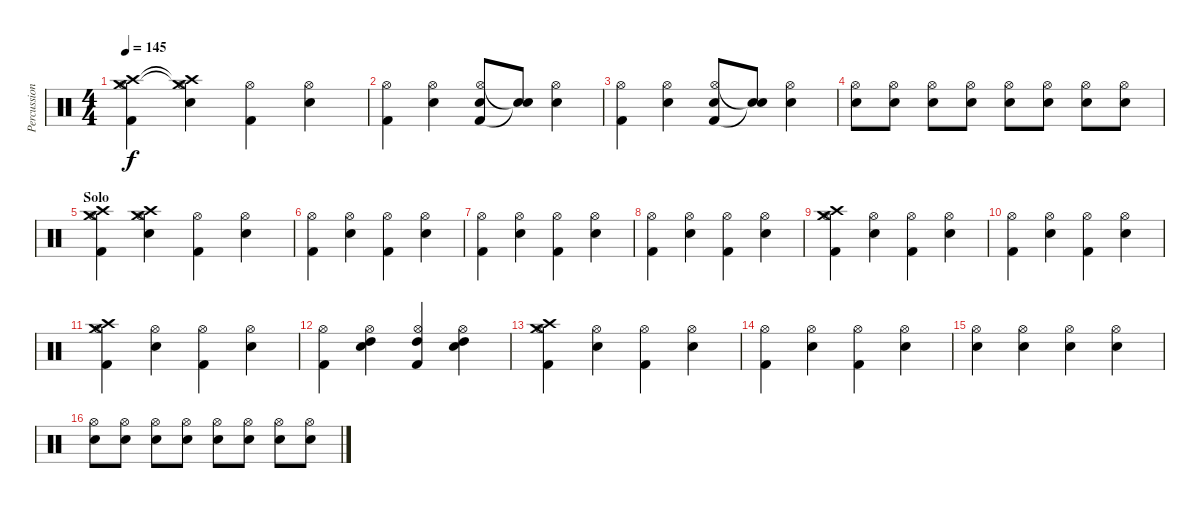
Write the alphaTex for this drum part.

\track ("Percussions" "Percussion") {instrument percussion}
\staff {score}
\articulation defaults
\ts (4 4)
\tempo 145
\clef neutral
\ks c
("Kick (hit) 2" "Hi-Hat (open)" "Crash medium (hit)" "Crash high (hit)").4{dy f} ("Snare (hit) 2" "Hi-Hat (open)" "Crash medium (hit)"{t} "Crash high (hit)"{t}).4 ("Kick (hit) 2" "Hi-Hat (open)").4 ("Snare (hit) 2" "Hi-Hat (open)").4 |
("Kick (hit) 2" "Hi-Hat (open)").4 ("Snare (hit) 2" "Hi-Hat (open)").4 ("Kick (hit) 2" "Hi-Hat (open)" "Snare (hit) 2").8 ("Snare (hit)"{t} "Snare (hit)"{t}).8 ("Snare (hit) 2" "Hi-Hat (open)").4 |
("Kick (hit) 2" "Hi-Hat (open)").4 ("Snare (hit) 2" "Hi-Hat (open)").4 ("Kick (hit) 2" "Hi-Hat (open)" "Snare (hit) 2").8 ("Snare (hit)"{t} "Snare (hit)"{t}).8 ("Snare (hit) 2" "Hi-Hat (open)").4 |
("Snare (hit) 2" "Hi-Hat (open)").8 ("Snare (hit) 2" "Hi-Hat (open)").8 ("Snare (hit) 2" "Hi-Hat (open)").8 ("Snare (hit) 2" "Hi-Hat (open)").8 ("Snare (hit) 2" "Hi-Hat (open)").8 ("Snare (hit) 2" "Hi-Hat (open)").8 ("Snare (hit) 2" "Hi-Hat (open)").8 ("Snare (hit) 2" "Hi-Hat (open)").8 |
\section ("" "Solo")
("Kick (hit) 2" "Hi-Hat (open)" "Crash medium (hit)" "Crash high (hit)").4 ("Snare (hit) 2" "Hi-Hat (open)" "Crash medium (hit)" "Crash high (hit)").4 ("Kick (hit) 2" "Hi-Hat (open)").4 ("Snare (hit) 2" "Hi-Hat (open)").4 |
("Kick (hit) 2" "Hi-Hat (open)").4 ("Snare (hit) 2" "Hi-Hat (open)").4 ("Kick (hit) 2" "Hi-Hat (open)").4 ("Snare (hit) 2" "Hi-Hat (open)").4 |
("Kick (hit) 2" "Hi-Hat (open)").4 ("Snare (hit) 2" "Hi-Hat (open)").4 ("Kick (hit) 2" "Hi-Hat (open)").4 ("Snare (hit) 2" "Hi-Hat (open)").4 |
("Kick (hit) 2" "Hi-Hat (open)").4 ("Snare (hit) 2" "Hi-Hat (open)").4 ("Kick (hit) 2" "Hi-Hat (open)").4 ("Snare (hit) 2" "Hi-Hat (open)").4 |
("Kick (hit) 2" "Hi-Hat (open)" "Crash medium (hit)" "Crash high (hit)").4 ("Snare (hit) 2" "Hi-Hat (open)").4 ("Kick (hit) 2" "Hi-Hat (open)").4 ("Snare (hit) 2" "Hi-Hat (open)").4 |
("Kick (hit) 2" "Hi-Hat (open)").4 ("Snare (hit) 2" "Hi-Hat (open)").4 ("Kick (hit) 2" "Hi-Hat (open)").4 ("Snare (hit) 2" "Hi-Hat (open)").4 |
("Kick (hit) 2" "Hi-Hat (open)" "Crash medium (hit)" "Crash high (hit)").4 ("Snare (hit) 2" "Hi-Hat (open)").4 ("Kick (hit) 2" "Hi-Hat (open)").4 ("Snare (hit) 2" "Hi-Hat (open)").4 |
("Kick (hit) 2" "Hi-Hat (open)").4 ("Snare (hit) 2" "Hi-Hat (open)" "High Tom (hit)").4 ("Kick (hit) 2" "Hi-Hat (open)" "High Tom (hit)").4 ("Snare (hit) 2" "Hi-Hat (open)" "High Tom (hit)").4 |
("Kick (hit) 2" "Hi-Hat (open)" "Crash medium (hit)" "Crash high (hit)").4 ("Snare (hit) 2" "Hi-Hat (open)").4 ("Kick (hit) 2" "Hi-Hat (open)").4 ("Snare (hit) 2" "Hi-Hat (open)").4 |
("Kick (hit) 2" "Hi-Hat (open)").4 ("Snare (hit) 2" "Hi-Hat (open)").4 ("Kick (hit) 2" "Hi-Hat (open)").4 ("Snare (hit) 2" "Hi-Hat (open)").4 |
("Snare (hit) 2" "Hi-Hat (open)").4 ("Snare (hit) 2" "Hi-Hat (open)").4 ("Snare (hit) 2" "Hi-Hat (open)").4 ("Snare (hit) 2" "Hi-Hat (open)").4 |
("Snare (hit) 2" "Hi-Hat (open)").8 ("Snare (hit) 2" "Hi-Hat (open)").8 ("Snare (hit) 2" "Hi-Hat (open)").8 ("Snare (hit) 2" "Hi-Hat (open)").8 ("Snare (hit) 2" "Hi-Hat (open)").8 ("Snare (hit) 2" "Hi-Hat (open)").8 ("Snare (hit) 2" "Hi-Hat (open)").8 ("Snare (hit) 2" "Hi-Hat (open)").8
